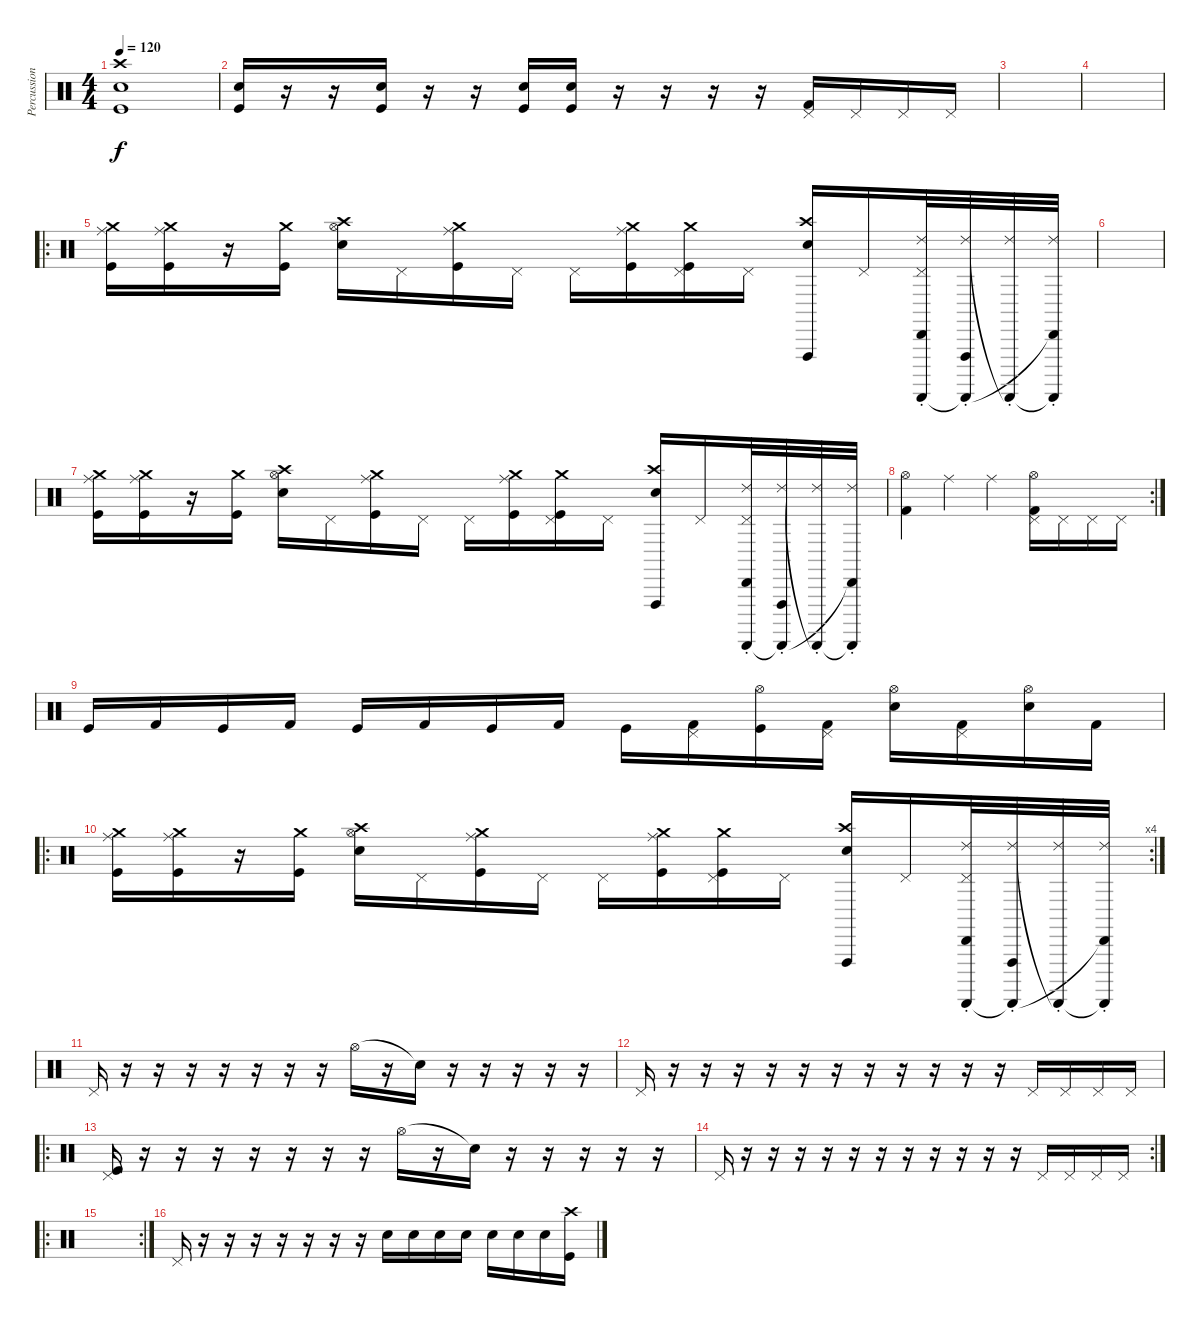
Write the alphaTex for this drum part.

\track ("Percussions" "Percussion") {instrument percussion}
\staff {score}
\articulation defaults
\ts (4 4)
\tempo 120
\clef neutral
\ks c
("Crash high (hit)" "Electric Snare (hit)" "Kick (hit)").1{dy f} |
("Electric Snare (hit)" "Kick (hit)").16 r.16 r.16 ("Electric Snare (hit)" "Kick (hit)").16 r.16 r.16 ("Electric Snare (hit)" "Kick (hit)").16 ("Electric Snare (hit)" "Kick (hit)").16 r.16 r.16 r.16 r.16 ("Pedal Hi-Hat (hit)" "Kick (hit) 2").16 "Pedal Hi-Hat (hit)".16 "Pedal Hi-Hat (hit)".16 "Pedal Hi-Hat (hit)".16 |
|
|
\ro
("Ride (middle)" "Crash medium (hit)" "Kick (hit)").16 ("Ride (middle)" "Crash medium (hit)" "Kick (hit)").16 r.16 ("Crash medium (hit)" "Kick (hit)").16 ("Crash high (hit)" "Electric Snare (hit)" "Hi-Hat (open)").16 "Pedal Hi-Hat (hit)".16 ("Ride (middle)" "Crash medium (hit)" "Kick (hit)").16 "Pedal Hi-Hat (hit)".16 "Pedal Hi-Hat (hit)".16 ("Ride (middle)" "Crash medium (hit)" "Kick (hit)").16 ("Pedal Hi-Hat (hit)" "Crash medium (hit)" "Kick (hit)").16 "Pedal Hi-Hat (hit)".16 ("Vibraslap (hit)" "Electric Snare (hit)" "Crash high (hit)").16 "Pedal Hi-Hat (hit)".16 ("Pedal Hi-Hat (hit)" "Ride (choke) 2" "Guiro (scrap-return)" "Cabasa (hit)").32 ("Vibraslap (hit)" "Ride (choke) 2" "Guiro (scrap-return)"{t}).32 ("Ride (choke) 2" "Guiro (scrap-return)"{t}).32 ("Ride (choke) 2" "Guiro (scrap-return)"{t} "Cabasa (hit)"{t}).32 |
|
("Ride (middle)" "Crash medium (hit)" "Kick (hit)").16 ("Ride (middle)" "Crash medium (hit)" "Kick (hit)").16 r.16 ("Crash medium (hit)" "Kick (hit)").16 ("Crash high (hit)" "Electric Snare (hit)" "Hi-Hat (open)").16 "Pedal Hi-Hat (hit)".16 ("Ride (middle)" "Crash medium (hit)" "Kick (hit)").16 "Pedal Hi-Hat (hit)".16 "Pedal Hi-Hat (hit)".16 ("Ride (middle)" "Crash medium (hit)" "Kick (hit)").16 ("Pedal Hi-Hat (hit)" "Crash medium (hit)" "Kick (hit)").16 "Pedal Hi-Hat (hit)".16 ("Vibraslap (hit)" "Electric Snare (hit)" "Crash high (hit)").16 "Pedal Hi-Hat (hit)".16 ("Pedal Hi-Hat (hit)" "Ride (choke) 2" "Guiro (scrap-return)" "Cabasa (hit)").32 ("Vibraslap (hit)" "Ride (choke) 2" "Guiro (scrap-return)"{t}).32 ("Ride (choke) 2" "Guiro (scrap-return)"{t}).32 ("Ride (choke) 2" "Guiro (scrap-return)"{t} "Cabasa (hit)"{t}).32 |
\rc 2
("Hi-Hat (open)" "Kick (hit) 2").4 "Ride (middle)".4 "Ride (middle)".4 ("Hi-Hat (open)" "Pedal Hi-Hat (hit)" "Kick (hit) 2").16 "Pedal Hi-Hat (hit)".16 "Pedal Hi-Hat (hit)".16 "Pedal Hi-Hat (hit)".16 |
"Kick (hit)".16 "Kick (hit) 2".16 "Kick (hit)".16 "Kick (hit) 2".16 "Kick (hit)".16 "Kick (hit) 2".16 "Kick (hit)".16 "Kick (hit) 2".16 "Kick (hit)".16 ("Pedal Hi-Hat (hit)" "Kick (hit) 2").16 ("Hi-Hat (open)" "Kick (hit)").16 ("Pedal Hi-Hat (hit)" "Kick (hit) 2").16 ("Hi-Hat (open)" "Electric Snare (hit)").16 ("Pedal Hi-Hat (hit)" "Kick (hit) 2").16 ("Hi-Hat (open)" "Electric Snare (hit)").16 "Kick (hit) 2".16 |
\ro
\rc 4
("Ride (middle)" "Crash medium (hit)" "Kick (hit)").16 ("Ride (middle)" "Crash medium (hit)" "Kick (hit)").16 r.16 ("Crash medium (hit)" "Kick (hit)").16 ("Crash high (hit)" "Electric Snare (hit)" "Hi-Hat (open)").16 "Pedal Hi-Hat (hit)".16 ("Ride (middle)" "Crash medium (hit)" "Kick (hit)").16 "Pedal Hi-Hat (hit)".16 "Pedal Hi-Hat (hit)".16 ("Ride (middle)" "Crash medium (hit)" "Kick (hit)").16 ("Pedal Hi-Hat (hit)" "Crash medium (hit)" "Kick (hit)").16 "Pedal Hi-Hat (hit)".16 ("Vibraslap (hit)" "Electric Snare (hit)" "Crash high (hit)").16 "Pedal Hi-Hat (hit)".16 ("Pedal Hi-Hat (hit)" "Ride (choke) 2" "Guiro (scrap-return)" "Cabasa (hit)").32 ("Vibraslap (hit)" "Ride (choke) 2" "Guiro (scrap-return)"{t}).32 ("Ride (choke) 2" "Guiro (scrap-return)"{t}).32 ("Ride (choke) 2" "Guiro (scrap-return)"{t} "Cabasa (hit)"{t}).32 |
"Pedal Hi-Hat (hit)".16 r.16 r.16 r.16 r.16 r.16 r.16 r.16 "Hi-Hat (open)".16 r.16 "Snare (hit)"{t}.16 r.16 r.16 r.16 r.16 r.16 |
"Pedal Hi-Hat (hit)".16 r.16 r.16 r.16 r.16 r.16 r.16 r.16 r.16 r.16 r.16 r.16 "Pedal Hi-Hat (hit)".16 "Pedal Hi-Hat (hit)".16 "Pedal Hi-Hat (hit)".16 "Pedal Hi-Hat (hit)".16 |
\ro
("Pedal Hi-Hat (hit)" "Kick (hit)").16 r.16 r.16 r.16 r.16 r.16 r.16 r.16 "Hi-Hat (open)".16 r.16 "Snare (hit)"{t}.16 r.16 r.16 r.16 r.16 r.16 |
\rc 2 "Pedal Hi-Hat (hit)".16
r.16 r.16 r.16 r.16 r.16 r.16 r.16 r.16 r.16 r.16 r.16 "Pedal Hi-Hat (hit)".16 "Pedal Hi-Hat (hit)".16 "Pedal Hi-Hat (hit)".16 "Pedal Hi-Hat (hit)".16 |
\ro
\rc 2
|
"Pedal Hi-Hat (hit)".16 r.16 r.16 r.16 r.16 r.16 r.16 r.16 "Electric Snare (hit)".16 "Electric Snare (hit)".16 "Electric Snare (hit)".16 "Electric Snare (hit)".16 "Electric Snare (hit)".16 "Electric Snare (hit)".16 "Electric Snare (hit)".16 ("Crash high (hit)" "Kick (hit)").16
